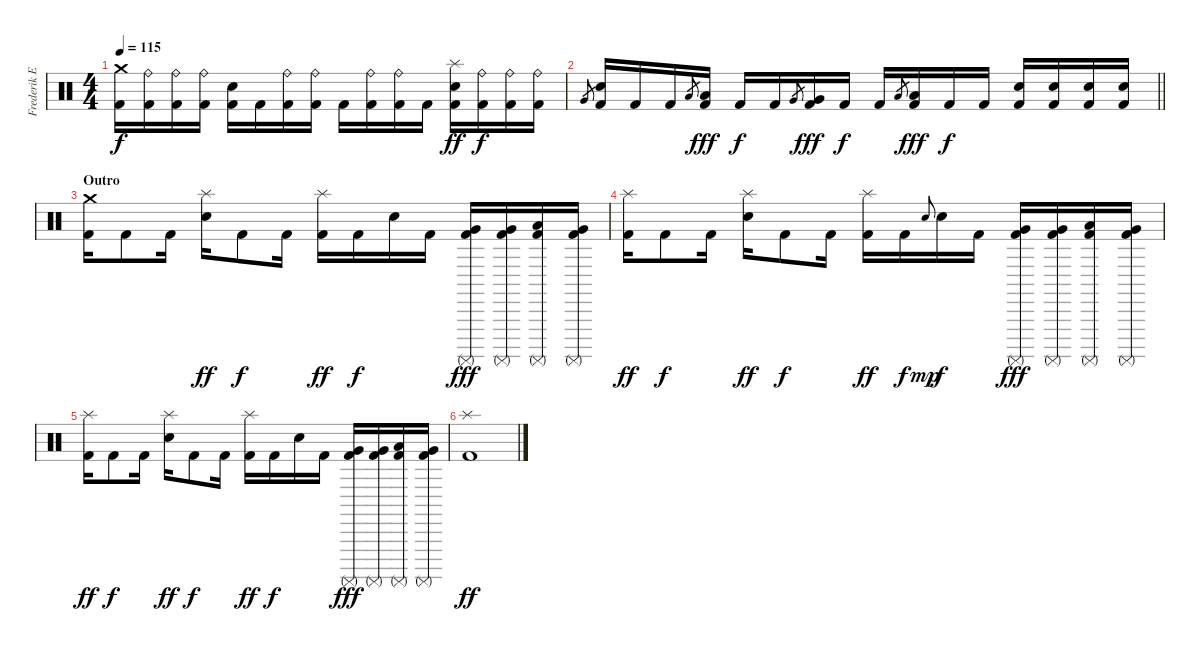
\track ("Frederik Ehmke" "Frederik E") {instrument percussion}
\staff {score}
\articulation defaults
\ts (4 4)
\tempo 115
\clef neutral
\ks c
("Crash medium (hit)" "Kick (hit) 2").16{dy f} ("Ride (bell)" "Kick (hit) 2").16 ("Ride (bell)" "Kick (hit) 2").16 ("Ride (bell)" "Kick (hit) 2").16 ("Electric Snare (hit)" "Kick (hit) 2").16 "Kick (hit) 2".16 ("Ride (bell)" "Kick (hit) 2").16 ("Ride (bell)" "Kick (hit) 2").16 "Kick (hit) 2".16 ("Ride (bell)" "Kick (hit) 2").16 ("Ride (bell)" "Kick (hit) 2").16 "Kick (hit) 2".16 ("Splash (hit)" "Electric Snare (hit)" "Kick (hit) 2").16{dy ff} ("Ride (bell)" "Kick (hit) 2").16{dy f} ("Ride (bell)" "Kick (hit) 2").16 ("Ride (bell)" "Kick (hit) 2").16 |
\barLineRight lightlight "Very Low Tom (hit)".8{gr}
("Electric Snare (hit)" "Kick (hit) 2").16 "Kick (hit) 2".16 "Kick (hit) 2".16 "Low Tom (hit)".8{gr} ("Low Tom (hit)" "Kick (hit) 2").16{dy fff} "Kick (hit) 2".16{dy f} "Kick (hit) 2".16 "Very Low Tom (hit)".8{gr} ("Very Low Tom (hit)" "Kick (hit) 2").16{dy fff} "Kick (hit) 2".16{dy f} "Kick (hit) 2".16 "Low Floor Tom (hit)".8{gr} ("Low Floor Tom (hit)" "Kick (hit) 2").16{dy fff} "Kick (hit) 2".16{dy f} "Kick (hit) 2".16 ("Electric Snare (hit)" "Kick (hit) 2").16 ("Electric Snare (hit)" "Kick (hit) 2").16 ("Electric Snare (hit)" "Kick (hit) 2").16 ("Electric Snare (hit)" "Kick (hit) 2").16 |
\section ("" "Outro")
("Crash medium (hit)" "Kick (hit) 2").16 "Kick (hit) 2".8 "Kick (hit) 2".16 ("Splash (hit)" "Electric Snare (hit)").16{dy ff} "Kick (hit) 2".8{dy f} "Kick (hit) 2".16 ("Splash (hit)" "Kick (hit) 2").16{dy ff} "Kick (hit) 2".16{dy f} "Electric Snare (hit)".16 "Kick (hit) 2".16 ("Surdo (mute)" "Very Low Tom (hit)" "Kick (hit) 2").16{dy fff} ("Surdo (mute)" "Very Low Tom (hit)" "Kick (hit) 2").16 ("Surdo (mute)" "Low Tom (hit)" "Kick (hit) 2").16 ("Surdo (mute)" "Very Low Tom (hit)" "Kick (hit) 2").16 |
("Splash (hit)" "Kick (hit) 2").16{dy ff} "Kick (hit) 2".8{dy f} "Kick (hit) 2".16 ("Splash (hit)" "Electric Snare (hit)").16{dy ff} "Kick (hit) 2".8{dy f} "Kick (hit) 2".16 ("Splash (hit)" "Kick (hit) 2").16{dy ff} "Kick (hit) 2".16{dy f} "Electric Snare (hit)".8{gr onbeat dy mp} "Electric Snare (hit)".16{dy f} "Kick (hit) 2".16 ("Surdo (mute)" "Very Low Tom (hit)" "Kick (hit) 2").16{dy fff} ("Surdo (mute)" "Very Low Tom (hit)" "Kick (hit) 2").16 ("Surdo (mute)" "Low Tom (hit)" "Kick (hit) 2").16 ("Surdo (mute)" "Very Low Tom (hit)" "Kick (hit) 2").16 |
("Splash (hit)" "Kick (hit) 2").16{dy ff} "Kick (hit) 2".8{dy f} "Kick (hit) 2".16 ("Splash (hit)" "Electric Snare (hit)").16{dy ff} "Kick (hit) 2".8{dy f} "Kick (hit) 2".16 ("Splash (hit)" "Kick (hit) 2").16{dy ff} "Kick (hit) 2".16{dy f} "Electric Snare (hit)".16 "Kick (hit) 2".16 ("Surdo (mute)" "Very Low Tom (hit)" "Kick (hit) 2").16{dy fff} ("Surdo (mute)" "Very Low Tom (hit)" "Kick (hit) 2").16 ("Surdo (mute)" "Low Tom (hit)" "Kick (hit) 2").16 ("Surdo (mute)" "Very Low Tom (hit)" "Kick (hit) 2").16 |
("Splash (hit)" "Kick (hit) 2").1{dy ff}
